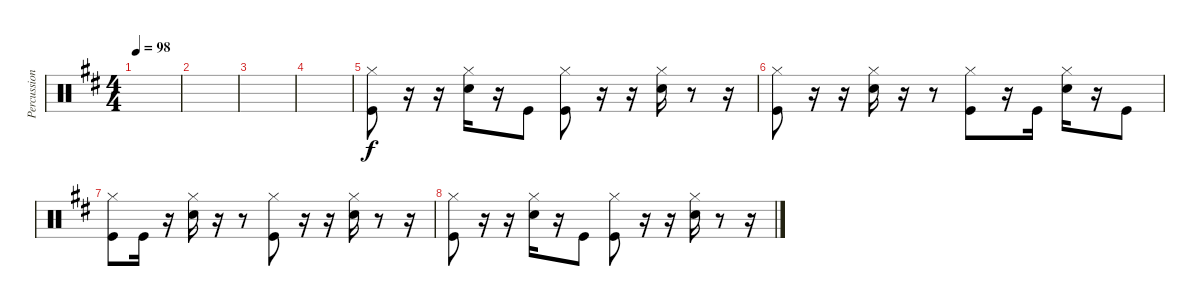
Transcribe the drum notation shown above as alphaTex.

\track ("Percussion" "Percussion") {instrument percussion}
\staff {score}
\articulation defaults
\ts (4 4)
\tempo 98
\clef neutral
\ks bminor
|
|
|
|
("Hi-Hat (closed)" "Kick (hit)").8 r.16 r.16 ("Hi-Hat (closed)" "Snare (hit) 2").16 r.16 "Kick (hit)".8 ("Hi-Hat (closed)" "Kick (hit)").8 r.16 r.16 ("Hi-Hat (closed)" "Snare (hit) 2").16 r.8 r.16 |
("Hi-Hat (closed)" "Kick (hit)").8 r.16 r.16 ("Hi-Hat (closed)" "Snare (hit) 2").16 r.16 r.8 ("Hi-Hat (closed)" "Kick (hit)").8 r.16 "Kick (hit)".16 ("Hi-Hat (closed)" "Snare (hit) 2").16 r.16 "Kick (hit)".8 |
("Hi-Hat (closed)" "Kick (hit)").8 "Kick (hit)".16 r.16 ("Hi-Hat (closed)" "Snare (hit) 2").16 r.16 r.8 ("Hi-Hat (closed)" "Kick (hit)").8 r.16 r.16 ("Hi-Hat (closed)" "Snare (hit) 2").16 r.8 r.16 |
("Hi-Hat (closed)" "Kick (hit)").8 r.16 r.16 ("Hi-Hat (closed)" "Snare (hit) 2").16 r.16 "Kick (hit)".8 ("Hi-Hat (closed)" "Kick (hit)").8 r.16 r.16 ("Hi-Hat (closed)" "Snare (hit) 2").16 r.8 r.16
